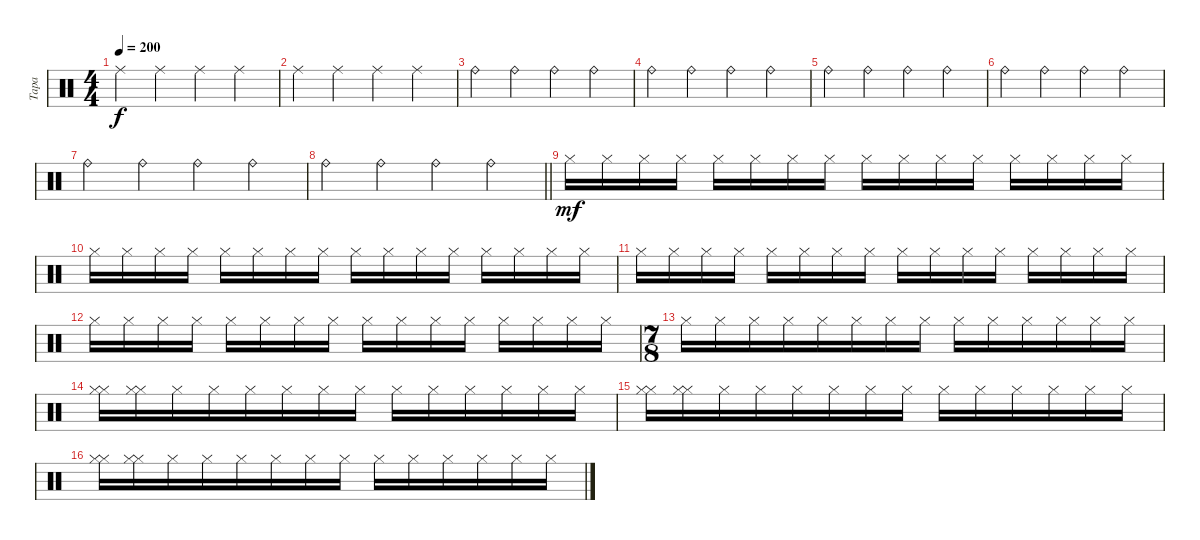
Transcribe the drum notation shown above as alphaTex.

\track ("Tapa" "Tapa") {instrument percussion}
\staff {score}
\articulation defaults
\ts (4 4)
\tempo 200
\clef neutral
\ks c "Ride (middle)".4{dy f} "Ride (middle)".4 "Ride (middle)".4 "Ride (middle)".4
|
"Ride (middle)".4 "Ride (middle)".4 "Ride (middle)".4 "Ride (middle)".4 |
"Ride (bell)".4 "Ride (bell)".4 "Ride (bell)".4 "Ride (bell)".4 |
"Ride (bell)".4 "Ride (bell)".4 "Ride (bell)".4 "Ride (bell)".4 |
"Ride (bell)".4 "Ride (bell)".4 "Ride (bell)".4 "Ride (bell)".4 |
"Ride (bell)".4 "Ride (bell)".4 "Ride (bell)".4 "Ride (bell)".4 |
"Ride (bell)".4 "Ride (bell)".4 "Ride (bell)".4 "Ride (bell)".4 |
\barLineRight lightlight "Ride (bell)".4 "Ride (bell)".4 "Ride (bell)".4 "Ride (bell)".4
|
"Hi-Hat (closed)".16{dy mf} "Hi-Hat (closed)".16 "Hi-Hat (closed)".16 "Hi-Hat (closed)".16 "Hi-Hat (closed)".16 "Hi-Hat (closed)".16 "Hi-Hat (closed)".16 "Hi-Hat (closed)".16 "Hi-Hat (closed)".16 "Hi-Hat (closed)".16 "Hi-Hat (closed)".16 "Hi-Hat (closed)".16 "Hi-Hat (closed)".16 "Hi-Hat (closed)".16 "Hi-Hat (closed)".16 "Hi-Hat (closed)".16 |
"Hi-Hat (closed)".16 "Hi-Hat (closed)".16 "Hi-Hat (closed)".16 "Hi-Hat (closed)".16 "Hi-Hat (closed)".16 "Hi-Hat (closed)".16 "Hi-Hat (closed)".16 "Hi-Hat (closed)".16 "Hi-Hat (closed)".16 "Hi-Hat (closed)".16 "Hi-Hat (closed)".16 "Hi-Hat (closed)".16 "Hi-Hat (closed)".16 "Hi-Hat (closed)".16 "Hi-Hat (closed)".16 "Hi-Hat (closed)".16 |
"Hi-Hat (closed)".16 "Hi-Hat (closed)".16 "Hi-Hat (closed)".16 "Hi-Hat (closed)".16 "Hi-Hat (closed)".16 "Hi-Hat (closed)".16 "Hi-Hat (closed)".16 "Hi-Hat (closed)".16 "Hi-Hat (closed)".16 "Hi-Hat (closed)".16 "Hi-Hat (closed)".16 "Hi-Hat (closed)".16 "Hi-Hat (closed)".16 "Hi-Hat (closed)".16 "Hi-Hat (closed)".16 "Hi-Hat (closed)".16 |
"Hi-Hat (closed)".16 "Hi-Hat (closed)".16 "Hi-Hat (closed)".16 "Hi-Hat (closed)".16 "Hi-Hat (closed)".16 "Hi-Hat (closed)".16 "Hi-Hat (closed)".16 "Hi-Hat (closed)".16 "Hi-Hat (closed)".16 "Hi-Hat (closed)".16 "Hi-Hat (closed)".16 "Hi-Hat (closed)".16 "Hi-Hat (closed)".16 "Hi-Hat (closed)".16 "Hi-Hat (closed)".16 "Hi-Hat (closed)".16 |
\ts (7 8)
"Hi-Hat (closed)".16 "Hi-Hat (closed)".16 "Hi-Hat (closed)".16 "Hi-Hat (closed)".16 "Hi-Hat (closed)".16 "Hi-Hat (closed)".16 "Hi-Hat (closed)".16 "Hi-Hat (closed)".16 "Hi-Hat (closed)".16 "Hi-Hat (closed)".16 "Hi-Hat (closed)".16 "Hi-Hat (closed)".16 "Hi-Hat (closed)".16 "Hi-Hat (closed)".16 |
("Hi-Hat (closed)" "Hi-Hat (closed)").16 ("Hi-Hat (closed)" "Hi-Hat (closed)").16 "Hi-Hat (closed)".16 "Hi-Hat (closed)".16 "Hi-Hat (closed)".16 "Hi-Hat (closed)".16 "Hi-Hat (closed)".16 "Hi-Hat (closed)".16 "Hi-Hat (closed)".16 "Hi-Hat (closed)".16 "Hi-Hat (closed)".16 "Hi-Hat (closed)".16 "Hi-Hat (closed)".16 "Hi-Hat (closed)".16 |
("Hi-Hat (closed)" "Hi-Hat (closed)").16 ("Hi-Hat (closed)" "Hi-Hat (closed)").16 "Hi-Hat (closed)".16 "Hi-Hat (closed)".16 "Hi-Hat (closed)".16 "Hi-Hat (closed)".16 "Hi-Hat (closed)".16 "Hi-Hat (closed)".16 "Hi-Hat (closed)".16 "Hi-Hat (closed)".16 "Hi-Hat (closed)".16 "Hi-Hat (closed)".16 "Hi-Hat (closed)".16 "Hi-Hat (closed)".16 |
("Hi-Hat (closed)" "Hi-Hat (closed)").16 ("Hi-Hat (closed)" "Hi-Hat (closed)").16 "Hi-Hat (closed)".16 "Hi-Hat (closed)".16 "Hi-Hat (closed)".16 "Hi-Hat (closed)".16 "Hi-Hat (closed)".16 "Hi-Hat (closed)".16 "Hi-Hat (closed)".16 "Hi-Hat (closed)".16 "Hi-Hat (closed)".16 "Hi-Hat (closed)".16 "Hi-Hat (closed)".16 "Hi-Hat (closed)".16
